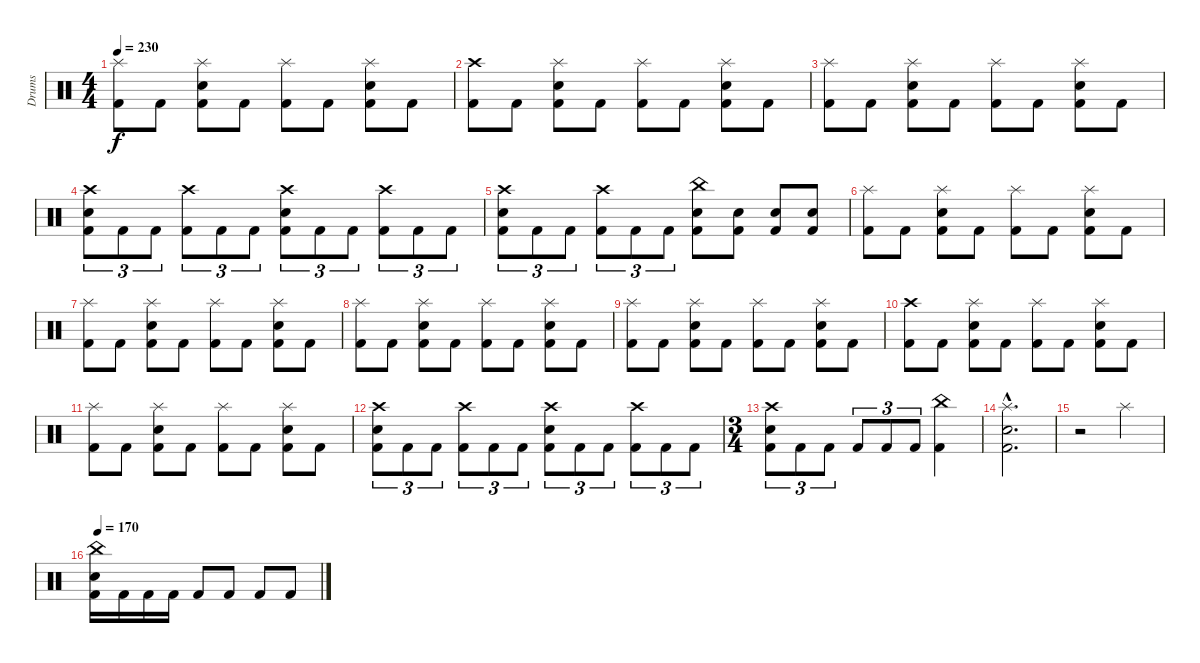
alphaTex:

\track ("Drums" "Drums") {instrument percussion}
\staff {score}
\articulation defaults
\ts (4 4)
\tempo 230
\clef neutral
\ks c
("Splash (hit)" "Kick (hit) 2").8{dy f} "Kick (hit) 2".8 ("Splash (hit)" "Electric Snare (hit)" "Kick (hit) 2").8 "Kick (hit) 2".8 ("Splash (hit)" "Kick (hit) 2").8 "Kick (hit) 2".8 ("Splash (hit)" "Electric Snare (hit)" "Kick (hit) 2").8 "Kick (hit) 2".8 |
("Crash high (hit)" "Kick (hit) 2").8 "Kick (hit) 2".8 ("Splash (hit)" "Electric Snare (hit)" "Kick (hit) 2").8 "Kick (hit) 2".8 ("Splash (hit)" "Kick (hit) 2").8 "Kick (hit) 2".8 ("Splash (hit)" "Electric Snare (hit)" "Kick (hit) 2").8 "Kick (hit) 2".8 |
("Splash (hit)" "Kick (hit) 2").8 "Kick (hit) 2".8 ("Splash (hit)" "Electric Snare (hit)" "Kick (hit) 2").8 "Kick (hit) 2".8 ("Splash (hit)" "Kick (hit) 2").8 "Kick (hit) 2".8 ("Splash (hit)" "Electric Snare (hit)" "Kick (hit) 2").8 "Kick (hit) 2".8 |
("Crash high (hit)" "Electric Snare (hit)" "Kick (hit) 2").8{tu (3 2)} "Kick (hit) 2".8{tu (3 2)} "Kick (hit) 2".8{tu (3 2)} ("Crash high (hit)" "Kick (hit) 2").8{tu (3 2)} "Kick (hit) 2".8{tu (3 2)} "Kick (hit) 2".8{tu (3 2)} ("Crash high (hit)" "Electric Snare (hit)" "Kick (hit) 2").8{tu (3 2)} "Kick (hit) 2".8{tu (3 2)} "Kick (hit) 2".8{tu (3 2)} ("Crash high (hit)" "Kick (hit) 2").8{tu (3 2)} "Kick (hit) 2".8{tu (3 2)} "Kick (hit) 2".8{tu (3 2)} |
("Crash high (hit)" "Electric Snare (hit)" "Kick (hit) 2").8{tu (3 2)} "Kick (hit) 2".8{tu (3 2)} "Kick (hit) 2".8{tu (3 2)} ("Crash high (hit)" "Kick (hit) 2").8{tu (3 2)} "Kick (hit) 2".8{tu (3 2)} "Kick (hit) 2".8{tu (3 2)} ("China (hit)" "Electric Snare (hit)" "Kick (hit) 2").8 ("Electric Snare (hit)" "Kick (hit) 2").8 ("Electric Snare (hit)" "Kick (hit) 2").8 ("Electric Snare (hit)" "Kick (hit) 2").8 |
("Splash (hit)" "Kick (hit) 2").8 "Kick (hit) 2".8 ("Splash (hit)" "Electric Snare (hit)" "Kick (hit) 2").8 "Kick (hit) 2".8 ("Splash (hit)" "Kick (hit) 2").8 "Kick (hit) 2".8 ("Splash (hit)" "Electric Snare (hit)" "Kick (hit) 2").8 "Kick (hit) 2".8 |
("Splash (hit)" "Kick (hit) 2").8 "Kick (hit) 2".8 ("Splash (hit)" "Electric Snare (hit)" "Kick (hit) 2").8 "Kick (hit) 2".8 ("Splash (hit)" "Kick (hit) 2").8 "Kick (hit) 2".8 ("Splash (hit)" "Electric Snare (hit)" "Kick (hit) 2").8 "Kick (hit) 2".8 |
("Splash (hit)" "Kick (hit) 2").8 "Kick (hit) 2".8 ("Splash (hit)" "Electric Snare (hit)" "Kick (hit) 2").8 "Kick (hit) 2".8 ("Splash (hit)" "Kick (hit) 2").8 "Kick (hit) 2".8 ("Splash (hit)" "Electric Snare (hit)" "Kick (hit) 2").8 "Kick (hit) 2".8 |
("Splash (hit)" "Kick (hit) 2").8 "Kick (hit) 2".8 ("Splash (hit)" "Electric Snare (hit)" "Kick (hit) 2").8 "Kick (hit) 2".8 ("Splash (hit)" "Kick (hit) 2").8 "Kick (hit) 2".8 ("Splash (hit)" "Electric Snare (hit)" "Kick (hit) 2").8 "Kick (hit) 2".8 |
("Crash high (hit)" "Kick (hit) 2").8 "Kick (hit) 2".8 ("Splash (hit)" "Electric Snare (hit)" "Kick (hit) 2").8 "Kick (hit) 2".8 ("Splash (hit)" "Kick (hit) 2").8 "Kick (hit) 2".8 ("Splash (hit)" "Electric Snare (hit)" "Kick (hit) 2").8 "Kick (hit) 2".8 |
("Splash (hit)" "Kick (hit) 2").8 "Kick (hit) 2".8 ("Splash (hit)" "Electric Snare (hit)" "Kick (hit) 2").8 "Kick (hit) 2".8 ("Splash (hit)" "Kick (hit) 2").8 "Kick (hit) 2".8 ("Splash (hit)" "Electric Snare (hit)" "Kick (hit) 2").8 "Kick (hit) 2".8 |
("Crash high (hit)" "Electric Snare (hit)" "Kick (hit) 2").8{tu (3 2)} "Kick (hit) 2".8{tu (3 2)} "Kick (hit) 2".8{tu (3 2)} ("Crash high (hit)" "Kick (hit) 2").8{tu (3 2)} "Kick (hit) 2".8{tu (3 2)} "Kick (hit) 2".8{tu (3 2)} ("Crash high (hit)" "Electric Snare (hit)" "Kick (hit) 2").8{tu (3 2)} "Kick (hit) 2".8{tu (3 2)} "Kick (hit) 2".8{tu (3 2)} ("Crash high (hit)" "Kick (hit) 2").8{tu (3 2)} "Kick (hit) 2".8{tu (3 2)} "Kick (hit) 2".8{tu (3 2)} |
\ts (3 4)
("Crash high (hit)" "Electric Snare (hit)" "Kick (hit) 2").8{tu (3 2)} "Kick (hit) 2".8{tu (3 2)} "Kick (hit) 2".8{tu (3 2)} "Kick (hit) 2".8{tu (3 2)} "Kick (hit) 2".8{tu (3 2)} "Kick (hit) 2".8{tu (3 2)} ("China (hit)" "Kick (hit) 2").4 |
("Splash (hit)"{hac} "Electric Snare (hit)"{hac} "Kick (hit) 2"{hac}).2{d} |
r.2 "Splash (hit)".4 |
\section ("" "")
\tempo 170
("China (hit)" "Electric Snare (hit)" "Kick (hit) 2").16 "Kick (hit) 2".16 "Kick (hit) 2".16 "Kick (hit) 2".16 "Kick (hit) 2".8 "Kick (hit) 2".8 "Kick (hit) 2".8 "Kick (hit) 2".8
